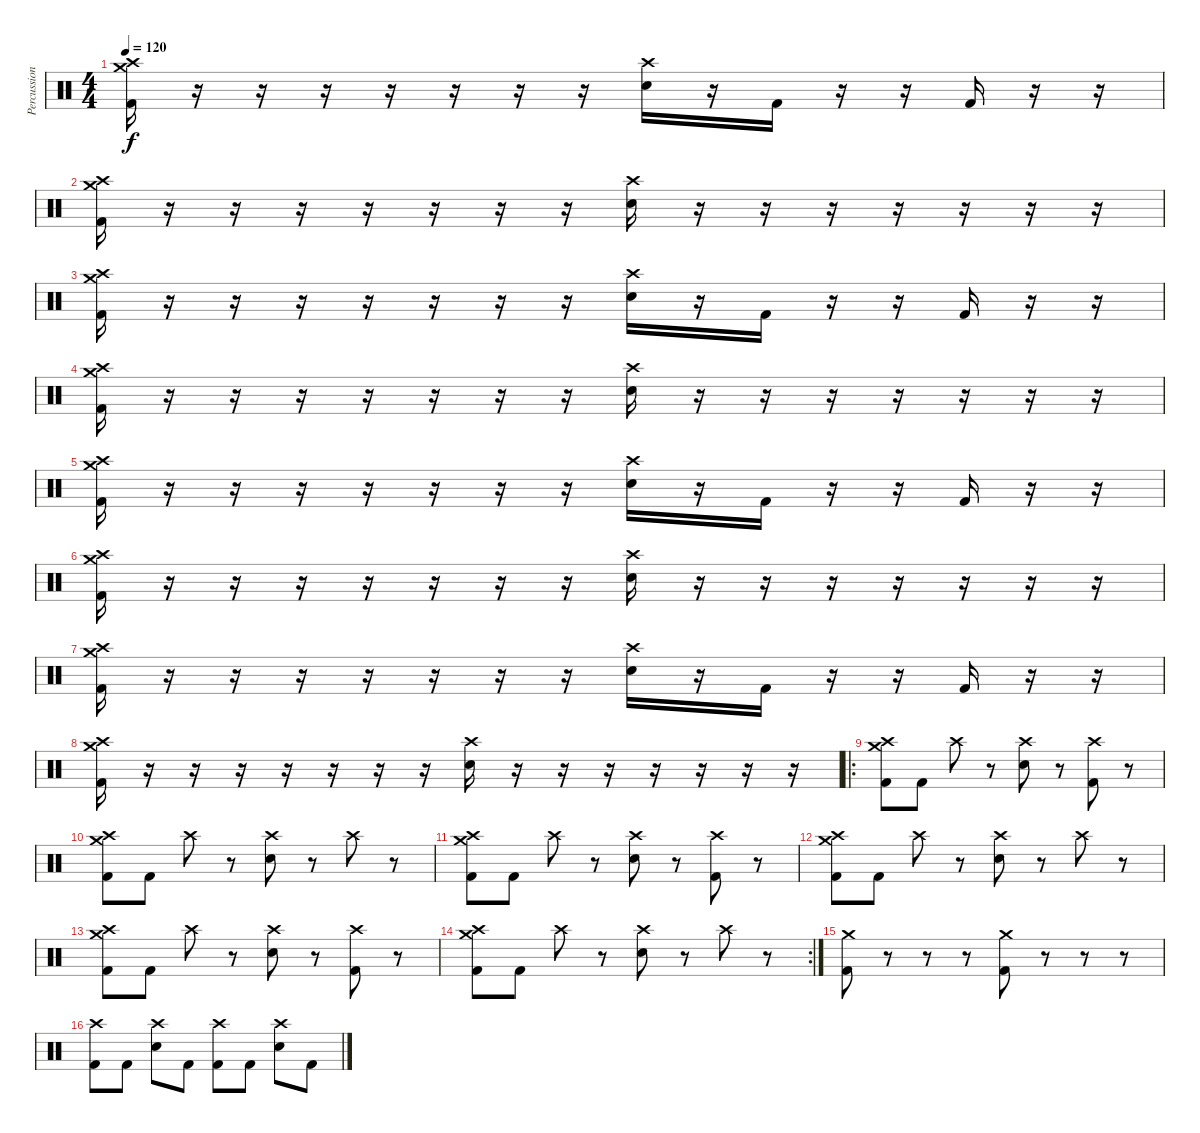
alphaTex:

\track ("Percussion" "Percussion") {instrument percussion}
\staff {score}
\articulation defaults
\ts (4 4)
\tempo 120
\clef neutral
\ks c
("Crash high (hit)" "Crash medium (hit)" "Kick (hit) 2").16{dy f} r.16 r.16 r.16 r.16 r.16 r.16 r.16 ("Crash high (hit)" "Electric Snare (hit)").16 r.16 "Kick (hit) 2".16 r.16 r.16 "Kick (hit) 2".16 r.16 r.16 |
("Crash high (hit)" "Crash medium (hit)" "Kick (hit) 2").16 r.16 r.16 r.16 r.16 r.16 r.16 r.16 ("Crash high (hit)" "Electric Snare (hit)").16 r.16 r.16 r.16 r.16 r.16 r.16 r.16 |
("Crash high (hit)" "Crash medium (hit)" "Kick (hit) 2").16 r.16 r.16 r.16 r.16 r.16 r.16 r.16 ("Crash high (hit)" "Electric Snare (hit)").16 r.16 "Kick (hit) 2".16 r.16 r.16 "Kick (hit) 2".16 r.16 r.16 |
("Crash high (hit)" "Crash medium (hit)" "Kick (hit) 2").16 r.16 r.16 r.16 r.16 r.16 r.16 r.16 ("Crash high (hit)" "Electric Snare (hit)").16 r.16 r.16 r.16 r.16 r.16 r.16 r.16 |
("Crash high (hit)" "Crash medium (hit)" "Kick (hit) 2").16 r.16 r.16 r.16 r.16 r.16 r.16 r.16 ("Crash high (hit)" "Electric Snare (hit)").16 r.16 "Kick (hit) 2".16 r.16 r.16 "Kick (hit) 2".16 r.16 r.16 |
("Crash high (hit)" "Crash medium (hit)" "Kick (hit) 2").16 r.16 r.16 r.16 r.16 r.16 r.16 r.16 ("Crash high (hit)" "Electric Snare (hit)").16 r.16 r.16 r.16 r.16 r.16 r.16 r.16 |
("Crash high (hit)" "Crash medium (hit)" "Kick (hit) 2").16 r.16 r.16 r.16 r.16 r.16 r.16 r.16 ("Crash high (hit)" "Electric Snare (hit)").16 r.16 "Kick (hit) 2".16 r.16 r.16 "Kick (hit) 2".16 r.16 r.16 |
("Crash high (hit)" "Crash medium (hit)" "Kick (hit) 2").16 r.16 r.16 r.16 r.16 r.16 r.16 r.16 ("Crash high (hit)" "Electric Snare (hit)").16 r.16 r.16 r.16 r.16 r.16 r.16 r.16 |
\ro
("Crash high (hit)" "Crash medium (hit)" "Kick (hit) 2").8 "Kick (hit) 2".8 "Crash high (hit)".8 r.8 ("Crash high (hit)" "Electric Snare (hit)").8 r.8 ("Crash high (hit)" "Kick (hit) 2").8 r.8 |
("Crash high (hit)" "Crash medium (hit)" "Kick (hit) 2").8 "Kick (hit) 2".8 "Crash high (hit)".8 r.8 ("Crash high (hit)" "Electric Snare (hit)").8 r.8 "Crash high (hit)".8 r.8 |
("Crash high (hit)" "Crash medium (hit)" "Kick (hit) 2").8 "Kick (hit) 2".8 "Crash high (hit)".8 r.8 ("Crash high (hit)" "Electric Snare (hit)").8 r.8 ("Crash high (hit)" "Kick (hit) 2").8 r.8 |
("Crash high (hit)" "Crash medium (hit)" "Kick (hit) 2").8 "Kick (hit) 2".8 "Crash high (hit)".8 r.8 ("Crash high (hit)" "Electric Snare (hit)").8 r.8 "Crash high (hit)".8 r.8 |
("Crash high (hit)" "Crash medium (hit)" "Kick (hit) 2").8 "Kick (hit) 2".8 "Crash high (hit)".8 r.8 ("Crash high (hit)" "Electric Snare (hit)").8 r.8 ("Crash high (hit)" "Kick (hit) 2").8 r.8 |
\rc 2
("Crash high (hit)" "Crash medium (hit)" "Kick (hit) 2").8 "Kick (hit) 2".8 "Crash high (hit)".8 r.8 ("Crash high (hit)" "Electric Snare (hit)").8 r.8 "Crash high (hit)".8 r.8 |
("Crash medium (hit)" "Kick (hit) 2").8 r.8 r.8 r.8 ("Crash medium (hit)" "Kick (hit) 2").8 r.8 r.8 r.8 |
("Crash high (hit)" "Kick (hit) 2").8 "Kick (hit) 2".8 ("Crash high (hit)" "Electric Snare (hit)").8 "Kick (hit) 2".8 ("Crash high (hit)" "Kick (hit) 2").8 "Kick (hit) 2".8 ("Crash high (hit)" "Electric Snare (hit)").8 "Kick (hit) 2".8
